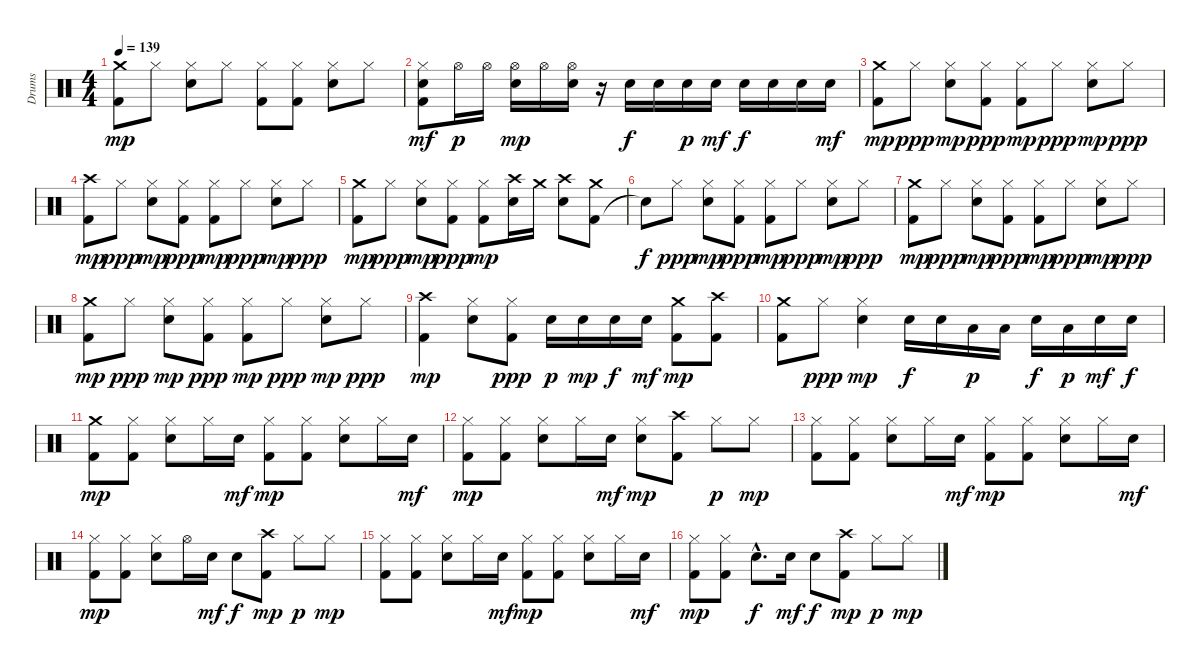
\track ("Drums" "Drums") {instrument percussion}
\staff {score}
\articulation defaults
\ts (4 4)
\tempo 139
\clef neutral
\ks c
("Kick (hit) 2" "Crash medium (hit)").8{dy mp} "Hi-Hat (closed)".8 ("Hi-Hat (closed)" "Electric Snare (hit)").8 "Hi-Hat (closed)".8 ("Kick (hit) 2" "Hi-Hat (closed)").8 ("Kick (hit) 2" "Hi-Hat (closed)").8 ("Hi-Hat (closed)" "Electric Snare (hit)").8 "Hi-Hat (closed)".8 |
("Kick (hit) 2" "Hi-Hat (closed)" "Electric Snare (hit)").8{dy mf} "Hi-Hat (open)".16{dy p} "Hi-Hat (open)".16 ("Hi-Hat (open)" "Electric Snare (hit)").16{dy mp} "Hi-Hat (open)".16 ("Hi-Hat (open)" "Electric Snare (hit)").16 r.16 "Electric Snare (hit)".16{dy f} "Electric Snare (hit)".16 "Electric Snare (hit)".16{dy p} "Electric Snare (hit)".16{dy mf} "Electric Snare (hit)".16{dy f} "Electric Snare (hit)".16 "Electric Snare (hit)".16 "Electric Snare (hit)".16{dy mf} |
("Kick (hit) 2" "Crash medium (hit)").8{dy mp} "Hi-Hat (closed)".8{dy ppp} ("Hi-Hat (closed)" "Electric Snare (hit)").8{dy mp} ("Kick (hit) 2" "Hi-Hat (closed)").8{dy ppp} ("Kick (hit) 2" "Hi-Hat (closed)").8{dy mp} "Hi-Hat (closed)".8{dy ppp} ("Hi-Hat (closed)" "Electric Snare (hit)").8{dy mp} "Hi-Hat (closed)".8{dy ppp} |
("Kick (hit) 2" "Crash high (hit)").8{dy mp} "Hi-Hat (closed)".8{dy ppp} ("Hi-Hat (closed)" "Electric Snare (hit)").8{dy mp} ("Kick (hit) 2" "Hi-Hat (closed)").8{dy ppp} ("Kick (hit) 2" "Hi-Hat (closed)").8{dy mp} "Hi-Hat (closed)".8{dy ppp} ("Hi-Hat (closed)" "Electric Snare (hit)").8{dy mp} "Hi-Hat (closed)".8{dy ppp} |
("Kick (hit) 2" "Crash medium (hit)").8{dy mp} "Hi-Hat (closed)".8{dy ppp} ("Hi-Hat (closed)" "Electric Snare (hit)").8{dy mp} ("Kick (hit) 2" "Hi-Hat (closed)").8{dy ppp} ("Kick (hit) 2" "Hi-Hat (closed)").8{dy mp} ("Crash high (hit)" "Electric Snare (hit)").16 "Crash medium (hit)".16 ("Crash high (hit)" "Electric Snare (hit)").8 ("Kick (hit) 2" "Crash medium (hit)").8 |
"Snare (hit)"{t}.8{dy f} "Hi-Hat (closed)".8{dy ppp} ("Hi-Hat (closed)" "Electric Snare (hit)").8{dy mp} ("Kick (hit) 2" "Hi-Hat (closed)").8{dy ppp} ("Kick (hit) 2" "Hi-Hat (closed)").8{dy mp} "Hi-Hat (closed)".8{dy ppp} ("Hi-Hat (closed)" "Electric Snare (hit)").8{dy mp} "Hi-Hat (closed)".8{dy ppp} |
("Kick (hit) 2" "Crash medium (hit)").8{dy mp} "Hi-Hat (closed)".8{dy ppp} ("Hi-Hat (closed)" "Electric Snare (hit)").8{dy mp} ("Kick (hit) 2" "Hi-Hat (closed)").8{dy ppp} ("Kick (hit) 2" "Hi-Hat (closed)").8{dy mp} "Hi-Hat (closed)".8{dy ppp} ("Hi-Hat (closed)" "Electric Snare (hit)").8{dy mp} "Hi-Hat (closed)".8{dy ppp} |
("Kick (hit) 2" "Crash medium (hit)").8{dy mp} "Hi-Hat (closed)".8{dy ppp} ("Hi-Hat (closed)" "Electric Snare (hit)").8{dy mp} ("Kick (hit) 2" "Hi-Hat (closed)").8{dy ppp} ("Kick (hit) 2" "Hi-Hat (closed)").8{dy mp} "Hi-Hat (closed)".8{dy ppp} ("Hi-Hat (closed)" "Electric Snare (hit)").8{dy mp} "Hi-Hat (closed)".8{dy ppp} |
("Kick (hit) 2" "Crash high (hit)").4{dy mp} ("Hi-Hat (closed)" "Electric Snare (hit)").8 ("Kick (hit) 2" "Hi-Hat (closed)").8{dy ppp} "Electric Snare (hit)".16{dy p} "Electric Snare (hit)".16{dy mp} "Electric Snare (hit)".16{dy f} "Electric Snare (hit)".16{dy mf} ("Kick (hit) 2" "Crash medium (hit)").8{dy mp} ("Kick (hit) 2" "Crash high (hit)").8 |
("Kick (hit) 2" "Crash medium (hit)").8 "Hi-Hat (closed)".8{dy ppp} ("Hi-Hat (closed)" "Electric Snare (hit)").4{dy mp} "Electric Snare (hit)".16{dy f} "Electric Snare (hit)".16 "Low Tom (hit)".16{dy p} "Low Tom (hit)".16 "Electric Snare (hit)".16{dy f} "Low Tom (hit)".16{dy p} "Electric Snare (hit)".16{dy mf} "Electric Snare (hit)".16{dy f} |
("Kick (hit) 2" "Crash medium (hit)").8{dy mp} ("Kick (hit) 2" "Hi-Hat (closed)").8 ("Hi-Hat (closed)" "Electric Snare (hit)").8 "Hi-Hat (closed)".16 "Electric Snare (hit)".16{dy mf} ("Kick (hit) 2" "Hi-Hat (closed)").8{dy mp} ("Kick (hit) 2" "Hi-Hat (closed)").8 ("Hi-Hat (closed)" "Electric Snare (hit)").8 "Hi-Hat (closed)".16 "Electric Snare (hit)".16{dy mf} |
("Kick (hit) 2" "Hi-Hat (closed)").8{dy mp} ("Kick (hit) 2" "Hi-Hat (closed)").8 ("Hi-Hat (closed)" "Electric Snare (hit)").8 "Hi-Hat (closed)".16 "Electric Snare (hit)".16{dy mf} ("Hi-Hat (closed)" "Electric Snare (hit)").8{dy mp} ("Kick (hit) 2" "Crash high (hit)").8 "Hi-Hat (closed)".8{dy p} "Hi-Hat (closed)".8{dy mp} |
("Kick (hit) 2" "Hi-Hat (closed)").8 ("Kick (hit) 2" "Hi-Hat (closed)").8 ("Hi-Hat (closed)" "Electric Snare (hit)").8 "Hi-Hat (closed)".16 "Electric Snare (hit)".16{dy mf} ("Kick (hit) 2" "Hi-Hat (closed)").8{dy mp} ("Kick (hit) 2" "Hi-Hat (closed)").8 ("Hi-Hat (closed)" "Electric Snare (hit)").8 "Hi-Hat (closed)".16 "Electric Snare (hit)".16{dy mf} |
("Kick (hit) 2" "Hi-Hat (closed)").8{dy mp} ("Kick (hit) 2" "Hi-Hat (closed)").8 ("Hi-Hat (closed)" "Electric Snare (hit)").8 "Hi-Hat (open)".16 "Electric Snare (hit)".16{dy mf} "Electric Snare (hit)".8{dy f} ("Kick (hit) 2" "Crash high (hit)").8{dy mp} "Hi-Hat (closed)".8{dy p} "Hi-Hat (closed)".8{dy mp} |
("Kick (hit) 2" "Hi-Hat (closed)").8 ("Kick (hit) 2" "Hi-Hat (closed)").8 ("Hi-Hat (closed)" "Electric Snare (hit)").8 "Hi-Hat (closed)".16 "Electric Snare (hit)".16{dy mf} ("Kick (hit) 2" "Hi-Hat (closed)").8{dy mp} ("Kick (hit) 2" "Hi-Hat (closed)").8 ("Hi-Hat (closed)" "Electric Snare (hit)").8 "Hi-Hat (closed)".16 "Electric Snare (hit)".16{dy mf} |
("Kick (hit) 2" "Hi-Hat (closed)").8{dy mp} ("Kick (hit) 2" "Hi-Hat (closed)").8 "Electric Snare (hit)"{hac}.8{d dy f} "Electric Snare (hit)".16{dy mf} "Electric Snare (hit)".8{dy f} ("Kick (hit) 2" "Crash high (hit)").8{dy mp} "Hi-Hat (closed)".8{dy p} "Hi-Hat (closed)".8{dy mp}
